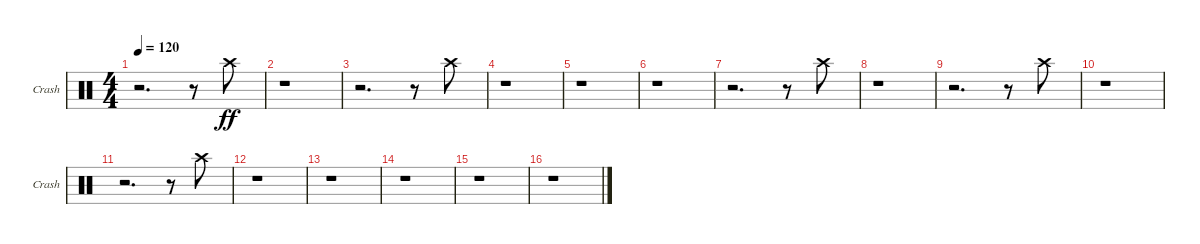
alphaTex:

\bracketExtendMode groupsimilarinstruments
\singleTrackTrackNamePolicy allsystems
\multiTrackTrackNamePolicy allsystems
\firstSystemTrackNameOrientation horizontal
\otherSystemsTrackNameOrientation horizontal
\track ("Cymbal" "Crash") {instrument percussion}
\staff {score}
\articulation defaults
\ts (4 4)
\tempo 120
\clef neutral
\scale
0.333333
\ks c
r.2{d dy ff} r.8 "Crash high (hit)".8 |
\scale
0.333333 r.1 |
\scale
0.333333 r.2{d} r.8 "Crash high (hit)".8 |
\scale
0.333333 r.1 |
\scale
0.333333 r.1 |
\scale
0.333333 r.1 |
\scale
0.333333 r.2{d} r.8 "Crash high (hit)".8 |
\scale
0.333333 r.1 |
\scale
0.333333 r.2{d} r.8 "Crash high (hit)".8 |
\scale
0.333333 r.1 |
\scale
0.333333 r.2{d} r.8 "Crash high (hit)".8 |
\scale
0.333333 r.1 |
\scale
0.333333 r.1 |
\scale
0.333333 r.1 |
\scale
0.333333 r.1 |
\scale
0.333333 r.1
